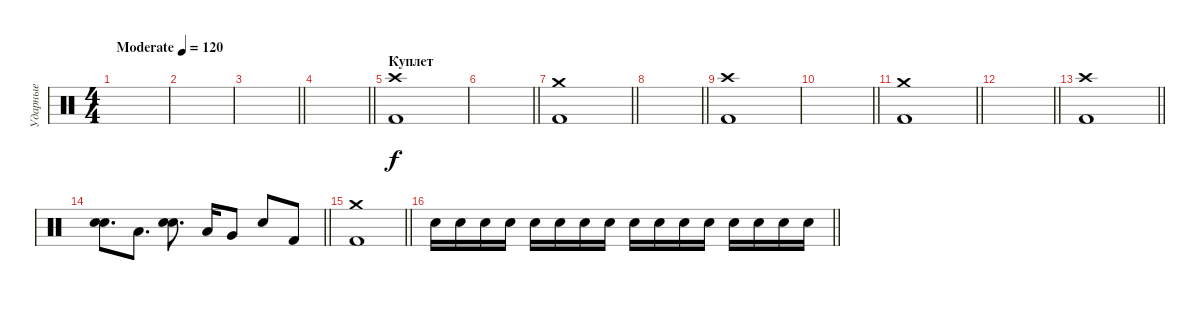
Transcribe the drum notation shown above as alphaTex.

\track ("Ударные" "Ударные") {instrument percussion}
\staff {score}
\articulation defaults
\ts (4 4)
\tempo (120 "Moderate")
\clef neutral
\ks c
|
|
\barLineRight lightlight
|
\barLineRight lightlight
|
\section ("" "Куплет")
("Crash high (hit)" "Kick (hit) 2").1 |
\barLineRight lightlight
|
\barLineRight lightlight
("Crash medium (hit)" "Kick (hit) 2").1 |
\barLineRight lightlight
|
("Crash high (hit)" "Kick (hit) 2").1 |
\barLineRight lightlight
|
\barLineRight lightlight
("Crash medium (hit)" "Kick (hit) 2").1 |
\barLineRight lightlight
|
\barLineRight lightlight
("Crash high (hit)" "Kick (hit) 2").1 |
\barLineRight lightlight
("Electric Snare (hit)" "Snare (hit) 2").8{d} "Low Tom (hit)".8{d} ("Electric Snare (hit)" "Snare (hit) 2").8{d} "Low Tom (hit)".16 "Very Low Tom (hit)".8 "Snare (hit) 2".8 "Kick (hit) 2".8 |
\barLineRight lightlight
("Crash medium (hit)" "Kick (hit) 2").1 |
\barLineRight lightlight "Electric Snare (hit)".16 "Electric Snare (hit)".16 "Electric Snare (hit)".16 "Electric Snare (hit)".16 "Electric Snare (hit)".16 "Electric Snare (hit)".16 "Electric Snare (hit)".16 "Electric Snare (hit)".16 "Electric Snare (hit)".16 "Electric Snare (hit)".16 "Electric Snare (hit)".16 "Electric Snare (hit)".16 "Electric Snare (hit)".16 "Electric Snare (hit)".16 "Electric Snare (hit)".16 "Electric Snare (hit)".16
